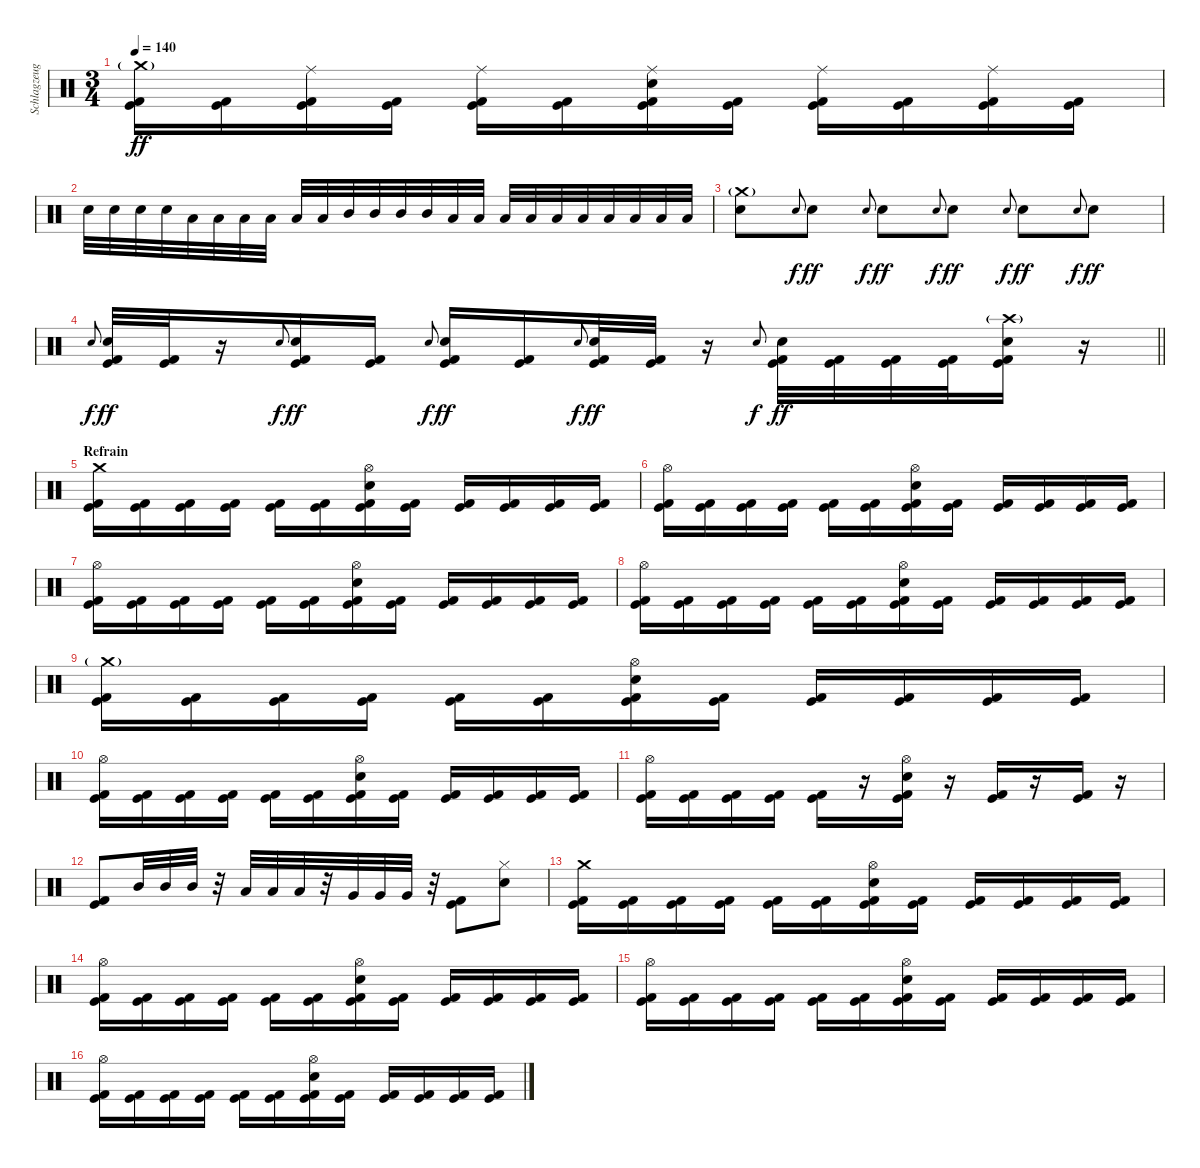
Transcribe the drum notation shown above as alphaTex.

\track ("Schlagzeug" "Schlagzeug") {instrument percussion}
\staff {score}
\articulation defaults
\ts (3 4)
\tempo 140
\clef neutral
\ks c
("Crash medium (hit)"{g} "Kick (hit)" "Kick (hit) 2").16{dy ff} ("Kick (hit)" "Kick (hit) 2").16 ("Ride (middle)" "Kick (hit)" "Kick (hit) 2").16 ("Kick (hit)" "Kick (hit) 2").16 ("Ride (middle)" "Kick (hit)" "Kick (hit) 2").16 ("Kick (hit)" "Kick (hit) 2").16 ("Ride (middle)" "Kick (hit)" "Kick (hit) 2" "Electric Snare (hit)").16 ("Kick (hit)" "Kick (hit) 2").16 ("Ride (middle)" "Kick (hit)" "Kick (hit) 2").16 ("Kick (hit)" "Kick (hit) 2").16 ("Ride (middle)" "Kick (hit)" "Kick (hit) 2").16 ("Kick (hit)" "Kick (hit) 2").16 |
"Electric Snare (hit)".32 "Electric Snare (hit)".32 "Electric Snare (hit)".32 "Electric Snare (hit)".32 "Low Tom (hit)".32 "Low Tom (hit)".32 "Low Tom (hit)".32 "Low Floor Tom (hit)".32 "Low Floor Tom (hit)".32 "Low Floor Tom (hit)".32 "Mid Tom (hit)".32 "Mid Tom (hit)".32 "Mid Tom (hit)".32 "Mid Tom (hit)".32 "Low Tom (hit)".32 "Low Tom (hit)".32 "Low Tom (hit)".32 "Low Tom (hit)".32 "Low Floor Tom (hit)".32 "Low Floor Tom (hit)".32 "Low Floor Tom (hit)".32 "Low Floor Tom (hit)".32 "Low Floor Tom (hit)".32 "Low Floor Tom (hit)".32 |
("Crash medium (hit)"{g} "Electric Snare (hit)").8 "Electric Snare (hit)".8{gr onbeat dy f} "Electric Snare (hit)".8{dy ff} "Electric Snare (hit)".8{gr onbeat dy f} "Electric Snare (hit)".8{dy ff} "Electric Snare (hit)".8{gr onbeat dy f} "Electric Snare (hit)".8{dy ff} "Electric Snare (hit)".8{gr onbeat dy f} "Electric Snare (hit)".8{dy ff} "Electric Snare (hit)".8{gr onbeat dy f} "Electric Snare (hit)".8{dy ff} |
\barLineRight lightlight "Electric Snare (hit)".8{gr onbeat dy f}
("Kick (hit)" "Kick (hit) 2" "Electric Snare (hit)").32{dy ff} ("Kick (hit)" "Kick (hit) 2").32 r.16 "Electric Snare (hit)".8{gr onbeat dy f} ("Kick (hit)" "Kick (hit) 2" "Electric Snare (hit)").16{dy ff} ("Kick (hit)" "Kick (hit) 2").16 "Electric Snare (hit)".8{gr onbeat dy f} ("Kick (hit)" "Kick (hit) 2" "Electric Snare (hit)").16{dy ff} ("Kick (hit)" "Kick (hit) 2").16 "Electric Snare (hit)".8{gr onbeat dy f} ("Kick (hit)" "Kick (hit) 2" "Electric Snare (hit)").32{dy ff} ("Kick (hit)" "Kick (hit) 2").32 r.16 "Electric Snare (hit)".8{gr onbeat dy f} ("Kick (hit)" "Kick (hit) 2" "Electric Snare (hit)").32{dy ff} ("Kick (hit)" "Kick (hit) 2").32 ("Kick (hit)" "Kick (hit) 2").32 ("Kick (hit)" "Kick (hit) 2").32 ("Crash high (hit)"{g} "Kick (hit)" "Kick (hit) 2" "Electric Snare (hit)").16 r.16 |
\section ("" "Refrain")
("Crash medium (hit)" "Kick (hit)" "Kick (hit) 2").16 ("Kick (hit)" "Kick (hit) 2").16 ("Kick (hit)" "Kick (hit) 2").16 ("Kick (hit)" "Kick (hit) 2").16 ("Kick (hit)" "Kick (hit) 2").16 ("Kick (hit)" "Kick (hit) 2").16 ("Hi-Hat (open)" "Kick (hit)" "Kick (hit) 2" "Electric Snare (hit)").16 ("Kick (hit)" "Kick (hit) 2").16 ("Kick (hit)" "Kick (hit) 2").16 ("Kick (hit)" "Kick (hit) 2").16 ("Kick (hit)" "Kick (hit) 2").16 ("Kick (hit)" "Kick (hit) 2").16 |
("Hi-Hat (open)" "Kick (hit)" "Kick (hit) 2").16 ("Kick (hit)" "Kick (hit) 2").16 ("Kick (hit)" "Kick (hit) 2").16 ("Kick (hit)" "Kick (hit) 2").16 ("Kick (hit)" "Kick (hit) 2").16 ("Kick (hit)" "Kick (hit) 2").16 ("Hi-Hat (open)" "Kick (hit)" "Kick (hit) 2" "Electric Snare (hit)").16 ("Kick (hit)" "Kick (hit) 2").16 ("Kick (hit)" "Kick (hit) 2").16 ("Kick (hit)" "Kick (hit) 2").16 ("Kick (hit)" "Kick (hit) 2").16 ("Kick (hit)" "Kick (hit) 2").16 |
("Hi-Hat (open)" "Kick (hit)" "Kick (hit) 2").16 ("Kick (hit)" "Kick (hit) 2").16 ("Kick (hit)" "Kick (hit) 2").16 ("Kick (hit)" "Kick (hit) 2").16 ("Kick (hit)" "Kick (hit) 2").16 ("Kick (hit)" "Kick (hit) 2").16 ("Hi-Hat (open)" "Kick (hit)" "Kick (hit) 2" "Electric Snare (hit)").16 ("Kick (hit)" "Kick (hit) 2").16 ("Kick (hit)" "Kick (hit) 2").16 ("Kick (hit)" "Kick (hit) 2").16 ("Kick (hit)" "Kick (hit) 2").16 ("Kick (hit)" "Kick (hit) 2").16 |
("Hi-Hat (open)" "Kick (hit)" "Kick (hit) 2").16 ("Kick (hit)" "Kick (hit) 2").16 ("Kick (hit)" "Kick (hit) 2").16 ("Kick (hit)" "Kick (hit) 2").16 ("Kick (hit)" "Kick (hit) 2").16 ("Kick (hit)" "Kick (hit) 2").16 ("Hi-Hat (open)" "Kick (hit)" "Kick (hit) 2" "Electric Snare (hit)").16 ("Kick (hit)" "Kick (hit) 2").16 ("Kick (hit)" "Kick (hit) 2").16 ("Kick (hit)" "Kick (hit) 2").16 ("Kick (hit)" "Kick (hit) 2").16 ("Kick (hit)" "Kick (hit) 2").16 |
("Crash medium (hit)"{g} "Kick (hit)" "Kick (hit) 2").16 ("Kick (hit)" "Kick (hit) 2").16 ("Kick (hit)" "Kick (hit) 2").16 ("Kick (hit)" "Kick (hit) 2").16 ("Kick (hit)" "Kick (hit) 2").16 ("Kick (hit)" "Kick (hit) 2").16 ("Hi-Hat (open)" "Kick (hit)" "Kick (hit) 2" "Electric Snare (hit)").16 ("Kick (hit)" "Kick (hit) 2").16 ("Kick (hit)" "Kick (hit) 2").16 ("Kick (hit)" "Kick (hit) 2").16 ("Kick (hit)" "Kick (hit) 2").16 ("Kick (hit)" "Kick (hit) 2").16 |
("Hi-Hat (open)" "Kick (hit)" "Kick (hit) 2").16 ("Kick (hit)" "Kick (hit) 2").16 ("Kick (hit)" "Kick (hit) 2").16 ("Kick (hit)" "Kick (hit) 2").16 ("Kick (hit)" "Kick (hit) 2").16 ("Kick (hit)" "Kick (hit) 2").16 ("Hi-Hat (open)" "Kick (hit)" "Kick (hit) 2" "Electric Snare (hit)").16 ("Kick (hit)" "Kick (hit) 2").16 ("Kick (hit)" "Kick (hit) 2").16 ("Kick (hit)" "Kick (hit) 2").16 ("Kick (hit)" "Kick (hit) 2").16 ("Kick (hit)" "Kick (hit) 2").16 |
("Hi-Hat (open)" "Kick (hit)" "Kick (hit) 2").16 ("Kick (hit)" "Kick (hit) 2").16 ("Kick (hit)" "Kick (hit) 2").16 ("Kick (hit)" "Kick (hit) 2").16 ("Kick (hit)" "Kick (hit) 2").16 r.16 ("Hi-Hat (open)" "Kick (hit)" "Kick (hit) 2" "Electric Snare (hit)").16 r.16 ("Kick (hit)" "Kick (hit) 2").16 r.16 ("Kick (hit)" "Kick (hit) 2").16 r.16 |
("Kick (hit)" "Kick (hit) 2").8 "Mid Tom (hit)".32 "Mid Tom (hit)".32 "Mid Tom (hit)".32 r.32 "Low Tom (hit)".32 "Low Tom (hit)".32 "Low Tom (hit)".32 r.32 "Very Low Tom (hit)".32 "Very Low Tom (hit)".32 "Very Low Tom (hit)".32 r.32 ("Kick (hit)" "Kick (hit) 2").8 ("Hi-Hat (closed)" "Electric Snare (hit)").8 |
("Crash medium (hit)" "Kick (hit)" "Kick (hit) 2").16 ("Kick (hit)" "Kick (hit) 2").16 ("Kick (hit)" "Kick (hit) 2").16 ("Kick (hit)" "Kick (hit) 2").16 ("Kick (hit)" "Kick (hit) 2").16 ("Kick (hit)" "Kick (hit) 2").16 ("Hi-Hat (open)" "Kick (hit)" "Kick (hit) 2" "Electric Snare (hit)").16 ("Kick (hit)" "Kick (hit) 2").16 ("Kick (hit)" "Kick (hit) 2").16 ("Kick (hit)" "Kick (hit) 2").16 ("Kick (hit)" "Kick (hit) 2").16 ("Kick (hit)" "Kick (hit) 2").16 |
("Hi-Hat (open)" "Kick (hit)" "Kick (hit) 2").16 ("Kick (hit)" "Kick (hit) 2").16 ("Kick (hit)" "Kick (hit) 2").16 ("Kick (hit)" "Kick (hit) 2").16 ("Kick (hit)" "Kick (hit) 2").16 ("Kick (hit)" "Kick (hit) 2").16 ("Hi-Hat (open)" "Kick (hit)" "Kick (hit) 2" "Electric Snare (hit)").16 ("Kick (hit)" "Kick (hit) 2").16 ("Kick (hit)" "Kick (hit) 2").16 ("Kick (hit)" "Kick (hit) 2").16 ("Kick (hit)" "Kick (hit) 2").16 ("Kick (hit)" "Kick (hit) 2").16 |
("Hi-Hat (open)" "Kick (hit)" "Kick (hit) 2").16 ("Kick (hit)" "Kick (hit) 2").16 ("Kick (hit)" "Kick (hit) 2").16 ("Kick (hit)" "Kick (hit) 2").16 ("Kick (hit)" "Kick (hit) 2").16 ("Kick (hit)" "Kick (hit) 2").16 ("Hi-Hat (open)" "Kick (hit)" "Kick (hit) 2" "Electric Snare (hit)").16 ("Kick (hit)" "Kick (hit) 2").16 ("Kick (hit)" "Kick (hit) 2").16 ("Kick (hit)" "Kick (hit) 2").16 ("Kick (hit)" "Kick (hit) 2").16 ("Kick (hit)" "Kick (hit) 2").16 |
("Hi-Hat (open)" "Kick (hit)" "Kick (hit) 2").16 ("Kick (hit)" "Kick (hit) 2").16 ("Kick (hit)" "Kick (hit) 2").16 ("Kick (hit)" "Kick (hit) 2").16 ("Kick (hit)" "Kick (hit) 2").16 ("Kick (hit)" "Kick (hit) 2").16 ("Hi-Hat (open)" "Kick (hit)" "Kick (hit) 2" "Electric Snare (hit)").16 ("Kick (hit)" "Kick (hit) 2").16 ("Kick (hit)" "Kick (hit) 2").16 ("Kick (hit)" "Kick (hit) 2").16 ("Kick (hit)" "Kick (hit) 2").16 ("Kick (hit)" "Kick (hit) 2").16
